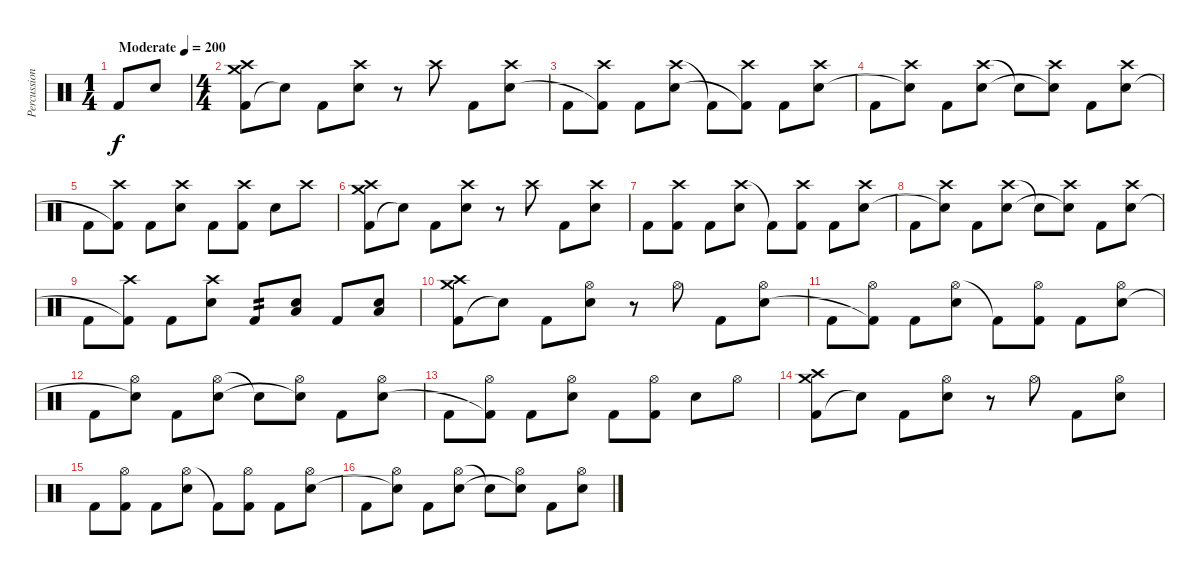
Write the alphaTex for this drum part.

\track ("Percussion" "Percussion") {instrument percussion}
\staff {score}
\articulation defaults
\ts (1 4)
\tempo (200 "Moderate")
\clef neutral
\ks c "Kick (hit) 2".8{dy f} "Snare (hit) 2".8
|
\ts (4 4)
("Kick (hit) 2" "Crash medium (hit)" "Crash high (hit)").8 "Snare (hit)"{t}.8 "Kick (hit) 2".8 ("Snare (hit) 2" "Crash high (hit)").8 r.8 "Crash high (hit)".8 "Kick (hit) 2".8 ("Crash high (hit)" "Snare (hit) 2").8 |
"Kick (hit) 2".8 ("Crash high (hit)" "Kick (hit) 2"{t}).8 "Kick (hit) 2".8 ("Crash high (hit)" "Snare (hit) 2").8 "Kick (hit) 2"{t}.8 ("Crash high (hit)" "Kick (hit) 2"{t}).8 "Kick (hit) 2".8 ("Crash high (hit)" "Snare (hit) 2").8 |
"Kick (hit) 2".8 ("Crash high (hit)" "Snare (hit)"{t}).8 "Kick (hit) 2".8 ("Crash high (hit)" "Snare (hit) 2").8 "Snare (hit)"{t}.8 ("Crash high (hit)" "Snare (hit)"{t}).8 "Kick (hit) 2".8 ("Crash high (hit)" "Snare (hit) 2").8 |
"Kick (hit) 2".8 ("Crash high (hit)" "Kick (hit) 2"{t}).8 "Kick (hit) 2".8 ("Crash high (hit)" "Snare (hit) 2").8 "Kick (hit) 2".8 ("Crash high (hit)" "Kick (hit) 2").8 "Snare (hit) 2".8 "Crash high (hit)".8 |
("Kick (hit) 2" "Crash medium (hit)" "Crash high (hit)").8 "Snare (hit)"{t}.8 "Kick (hit) 2".8 ("Snare (hit) 2" "Crash high (hit)").8 r.8 "Crash high (hit)".8 "Kick (hit) 2".8 ("Crash high (hit)" "Snare (hit) 2").8 |
"Kick (hit) 2".8 ("Crash high (hit)" "Kick (hit) 2").8 "Kick (hit) 2".8 ("Crash high (hit)" "Snare (hit) 2").8 "Kick (hit) 2"{t}.8 ("Crash high (hit)" "Kick (hit) 2").8 "Kick (hit) 2".8 ("Crash high (hit)" "Snare (hit) 2").8 |
"Kick (hit) 2".8 ("Crash high (hit)" "Snare (hit)"{t}).8 "Kick (hit) 2".8 ("Crash high (hit)" "Snare (hit) 2").8 "Snare (hit)"{t}.8 ("Crash high (hit)" "Snare (hit)"{t}).8 "Kick (hit) 2".8 ("Crash high (hit)" "Snare (hit) 2").8 |
"Kick (hit) 2".8 ("Crash high (hit)" "Kick (hit) 2"{t}).8 "Kick (hit) 2".8 ("Crash high (hit)" "Snare (hit) 2").8 "Kick (hit) 2".8{tp 2} ("Low Floor Tom (hit)" "Snare (hit) 2").8 "Kick (hit) 2".8 ("Low Floor Tom (hit)" "Snare (hit) 2").8 |
("Kick (hit) 2" "Crash medium (hit)" "Crash high (hit)").8 "Snare (hit)"{t}.8 "Kick (hit) 2".8 ("Snare (hit) 2" "Hi-Hat (open)").8 r.8 "Hi-Hat (open)".8 "Kick (hit) 2".8 ("Hi-Hat (open)" "Snare (hit) 2").8 |
"Kick (hit) 2".8 ("Hi-Hat (open)" "Kick (hit) 2"{t}).8 "Kick (hit) 2".8 ("Hi-Hat (open)" "Snare (hit) 2").8 "Kick (hit) 2"{t}.8 ("Hi-Hat (open)" "Kick (hit) 2").8 "Kick (hit) 2".8 ("Hi-Hat (open)" "Snare (hit) 2").8 |
"Kick (hit) 2".8 ("Hi-Hat (open)" "Snare (hit)"{t}).8 "Kick (hit) 2".8 ("Hi-Hat (open)" "Snare (hit) 2").8 "Snare (hit)"{t}.8 ("Hi-Hat (open)" "Snare (hit)"{t}).8 "Kick (hit) 2".8 ("Hi-Hat (open)" "Snare (hit) 2").8 |
"Kick (hit) 2".8 ("Hi-Hat (open)" "Kick (hit) 2"{t}).8 "Kick (hit) 2".8 ("Hi-Hat (open)" "Snare (hit) 2").8 "Kick (hit) 2".8 ("Hi-Hat (open)" "Kick (hit) 2").8 "Snare (hit) 2".8 "Hi-Hat (open)".8 |
("Kick (hit) 2" "Crash medium (hit)" "Crash high (hit)").8 "Snare (hit)"{t}.8 "Kick (hit) 2".8 ("Snare (hit) 2" "Hi-Hat (open)").8 r.8 "Hi-Hat (open)".8 "Kick (hit) 2".8 ("Hi-Hat (open)" "Snare (hit) 2").8 |
"Kick (hit) 2".8 ("Hi-Hat (open)" "Kick (hit) 2").8 "Kick (hit) 2".8 ("Hi-Hat (open)" "Snare (hit) 2").8 "Kick (hit) 2"{t}.8 ("Hi-Hat (open)" "Kick (hit) 2").8 "Kick (hit) 2".8 ("Hi-Hat (open)" "Snare (hit) 2").8 |
"Kick (hit) 2".8 ("Hi-Hat (open)" "Snare (hit)"{t}).8 "Kick (hit) 2".8 ("Hi-Hat (open)" "Snare (hit) 2").8 "Snare (hit)"{t}.8 ("Hi-Hat (open)" "Snare (hit)"{t}).8 "Kick (hit) 2".8 ("Hi-Hat (open)" "Snare (hit) 2").8
